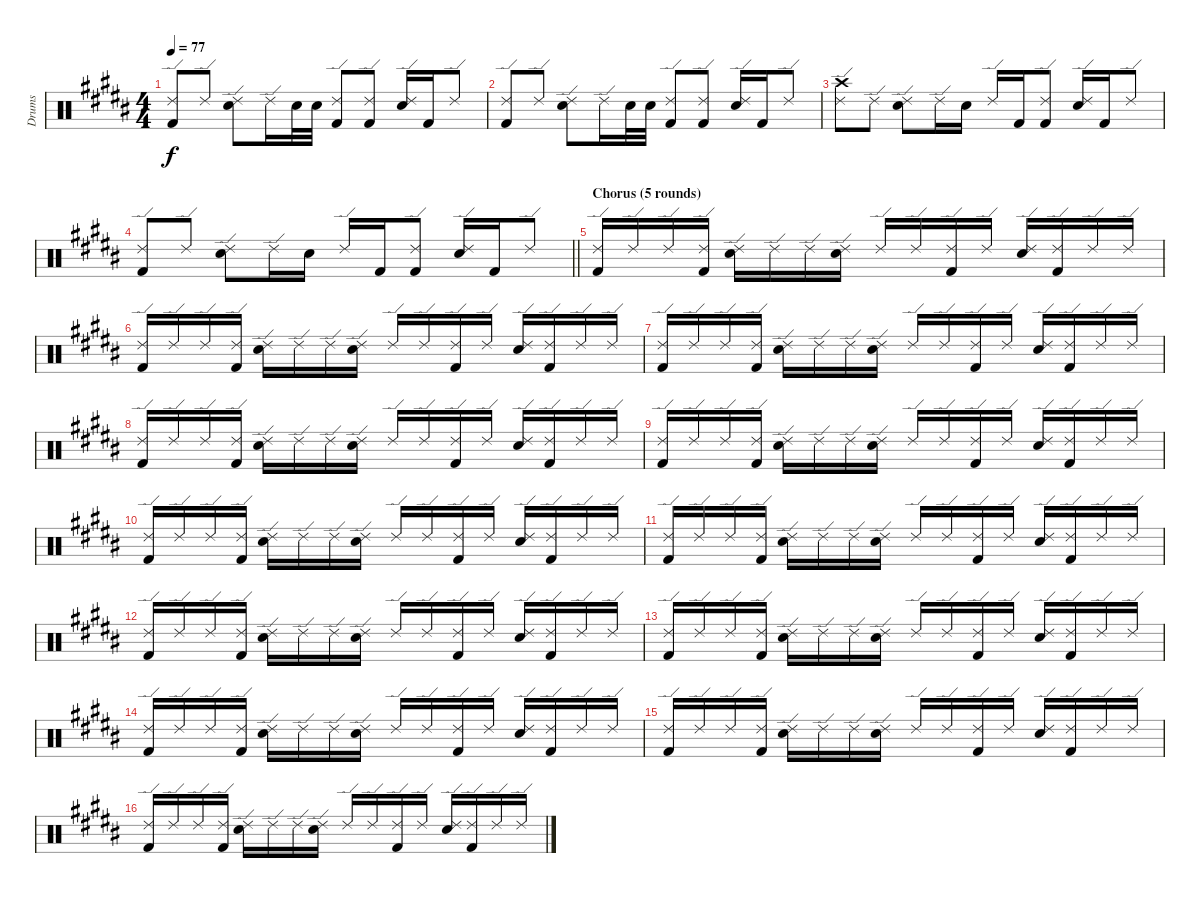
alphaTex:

\track ("Drums" "Drums") {instrument percussion}
\staff {score}
\articulation defaults
\ts (4 4)
\tempo 77
\clef neutral
\ks g#minor
("Kick (hit) 2" "Ride (edge) 2").8{dy f} "Ride (edge) 2".8 ("Ride (edge) 2" "Snare (hit) 2").8 "Ride (edge) 2".16 "Snare (hit) 2".32 "Snare (hit) 2".32 ("Kick (hit) 2" "Ride (edge) 2").8 ("Kick (hit) 2" "Ride (edge) 2").8 ("Ride (edge) 2" "Snare (hit) 2").16 "Kick (hit) 2".16 "Ride (edge) 2".8 |
("Kick (hit) 2" "Ride (edge) 2").8 "Ride (edge) 2".8 ("Ride (edge) 2" "Snare (hit) 2").8 "Ride (edge) 2".16 "Snare (hit) 2".32 "Snare (hit) 2".32 ("Kick (hit) 2" "Ride (edge) 2").8 ("Kick (hit) 2" "Ride (edge) 2").8 ("Ride (edge) 2" "Snare (hit) 2").16 "Kick (hit) 2".16 "Ride (edge) 2".8 |
("Ride (edge) 2" "Crash high (hit)").8 "Ride (edge) 2".8 ("Ride (edge) 2" "Snare (hit) 2").8 "Ride (edge) 2".16 "Snare (hit) 2".16 "Ride (edge) 2".16 "Kick (hit) 2".16 ("Kick (hit) 2" "Ride (edge) 2").8 ("Ride (edge) 2" "Snare (hit) 2").16 "Kick (hit) 2".16 "Ride (edge) 2".8 |
\barLineRight lightlight
("Kick (hit) 2" "Ride (edge) 2").8 "Ride (edge) 2".8 ("Ride (edge) 2" "Snare (hit) 2").8 "Ride (edge) 2".16 "Snare (hit) 2".16 "Ride (edge) 2".16 "Kick (hit) 2".16 ("Kick (hit) 2" "Ride (edge) 2").8 ("Ride (edge) 2" "Snare (hit) 2").16 "Kick (hit) 2".16 "Ride (edge) 2".8 |
\section ("" "Chorus (5 rounds)")
("Kick (hit) 2" "Ride (edge) 2").16 "Ride (edge) 2".16 "Ride (edge) 2".16 ("Kick (hit) 2" "Ride (edge) 2").16 ("Ride (edge) 2" "Snare (hit) 2").16 "Ride (edge) 2".16 "Ride (edge) 2".16 ("Ride (edge) 2" "Snare (hit) 2").16 "Ride (edge) 2".16 "Ride (edge) 2".16 ("Kick (hit) 2" "Ride (edge) 2").16 "Ride (edge) 2".16 ("Ride (edge) 2" "Snare (hit) 2").16 ("Kick (hit) 2" "Ride (edge) 2").16 "Ride (edge) 2".16 "Ride (edge) 2".16 |
("Kick (hit) 2" "Ride (edge) 2").16 "Ride (edge) 2".16 "Ride (edge) 2".16 ("Kick (hit) 2" "Ride (edge) 2").16 ("Ride (edge) 2" "Snare (hit) 2").16 "Ride (edge) 2".16 "Ride (edge) 2".16 ("Ride (edge) 2" "Snare (hit) 2").16 "Ride (edge) 2".16 "Ride (edge) 2".16 ("Kick (hit) 2" "Ride (edge) 2").16 "Ride (edge) 2".16 ("Ride (edge) 2" "Snare (hit) 2").16 ("Kick (hit) 2" "Ride (edge) 2").16 "Ride (edge) 2".16 "Ride (edge) 2".16 |
("Kick (hit) 2" "Ride (edge) 2").16 "Ride (edge) 2".16 "Ride (edge) 2".16 ("Kick (hit) 2" "Ride (edge) 2").16 ("Ride (edge) 2" "Snare (hit) 2").16 "Ride (edge) 2".16 "Ride (edge) 2".16 ("Ride (edge) 2" "Snare (hit) 2").16 "Ride (edge) 2".16 "Ride (edge) 2".16 ("Kick (hit) 2" "Ride (edge) 2").16 "Ride (edge) 2".16 ("Ride (edge) 2" "Snare (hit) 2").16 ("Kick (hit) 2" "Ride (edge) 2").16 "Ride (edge) 2".16 "Ride (edge) 2".16 |
("Kick (hit) 2" "Ride (edge) 2").16 "Ride (edge) 2".16 "Ride (edge) 2".16 ("Kick (hit) 2" "Ride (edge) 2").16 ("Ride (edge) 2" "Snare (hit) 2").16 "Ride (edge) 2".16 "Ride (edge) 2".16 ("Ride (edge) 2" "Snare (hit) 2").16 "Ride (edge) 2".16 "Ride (edge) 2".16 ("Kick (hit) 2" "Ride (edge) 2").16 "Ride (edge) 2".16 ("Ride (edge) 2" "Snare (hit) 2").16 ("Kick (hit) 2" "Ride (edge) 2").16 "Ride (edge) 2".16 "Ride (edge) 2".16 |
("Kick (hit) 2" "Ride (edge) 2").16 "Ride (edge) 2".16 "Ride (edge) 2".16 ("Kick (hit) 2" "Ride (edge) 2").16 ("Ride (edge) 2" "Snare (hit) 2").16 "Ride (edge) 2".16 "Ride (edge) 2".16 ("Ride (edge) 2" "Snare (hit) 2").16 "Ride (edge) 2".16 "Ride (edge) 2".16 ("Kick (hit) 2" "Ride (edge) 2").16 "Ride (edge) 2".16 ("Ride (edge) 2" "Snare (hit) 2").16 ("Kick (hit) 2" "Ride (edge) 2").16 "Ride (edge) 2".16 "Ride (edge) 2".16 |
("Kick (hit) 2" "Ride (edge) 2").16 "Ride (edge) 2".16 "Ride (edge) 2".16 ("Kick (hit) 2" "Ride (edge) 2").16 ("Ride (edge) 2" "Snare (hit) 2").16 "Ride (edge) 2".16 "Ride (edge) 2".16 ("Ride (edge) 2" "Snare (hit) 2").16 "Ride (edge) 2".16 "Ride (edge) 2".16 ("Kick (hit) 2" "Ride (edge) 2").16 "Ride (edge) 2".16 ("Ride (edge) 2" "Snare (hit) 2").16 ("Kick (hit) 2" "Ride (edge) 2").16 "Ride (edge) 2".16 "Ride (edge) 2".16 |
("Kick (hit) 2" "Ride (edge) 2").16 "Ride (edge) 2".16 "Ride (edge) 2".16 ("Kick (hit) 2" "Ride (edge) 2").16 ("Ride (edge) 2" "Snare (hit) 2").16 "Ride (edge) 2".16 "Ride (edge) 2".16 ("Ride (edge) 2" "Snare (hit) 2").16 "Ride (edge) 2".16 "Ride (edge) 2".16 ("Kick (hit) 2" "Ride (edge) 2").16 "Ride (edge) 2".16 ("Ride (edge) 2" "Snare (hit) 2").16 ("Kick (hit) 2" "Ride (edge) 2").16 "Ride (edge) 2".16 "Ride (edge) 2".16 |
("Kick (hit) 2" "Ride (edge) 2").16 "Ride (edge) 2".16 "Ride (edge) 2".16 ("Kick (hit) 2" "Ride (edge) 2").16 ("Ride (edge) 2" "Snare (hit) 2").16 "Ride (edge) 2".16 "Ride (edge) 2".16 ("Ride (edge) 2" "Snare (hit) 2").16 "Ride (edge) 2".16 "Ride (edge) 2".16 ("Kick (hit) 2" "Ride (edge) 2").16 "Ride (edge) 2".16 ("Ride (edge) 2" "Snare (hit) 2").16 ("Kick (hit) 2" "Ride (edge) 2").16 "Ride (edge) 2".16 "Ride (edge) 2".16 |
("Kick (hit) 2" "Ride (edge) 2").16 "Ride (edge) 2".16 "Ride (edge) 2".16 ("Kick (hit) 2" "Ride (edge) 2").16 ("Ride (edge) 2" "Snare (hit) 2").16 "Ride (edge) 2".16 "Ride (edge) 2".16 ("Ride (edge) 2" "Snare (hit) 2").16 "Ride (edge) 2".16 "Ride (edge) 2".16 ("Kick (hit) 2" "Ride (edge) 2").16 "Ride (edge) 2".16 ("Ride (edge) 2" "Snare (hit) 2").16 ("Kick (hit) 2" "Ride (edge) 2").16 "Ride (edge) 2".16 "Ride (edge) 2".16 |
("Kick (hit) 2" "Ride (edge) 2").16 "Ride (edge) 2".16 "Ride (edge) 2".16 ("Kick (hit) 2" "Ride (edge) 2").16 ("Ride (edge) 2" "Snare (hit) 2").16 "Ride (edge) 2".16 "Ride (edge) 2".16 ("Ride (edge) 2" "Snare (hit) 2").16 "Ride (edge) 2".16 "Ride (edge) 2".16 ("Kick (hit) 2" "Ride (edge) 2").16 "Ride (edge) 2".16 ("Ride (edge) 2" "Snare (hit) 2").16 ("Kick (hit) 2" "Ride (edge) 2").16 "Ride (edge) 2".16 "Ride (edge) 2".16 |
("Kick (hit) 2" "Ride (edge) 2").16 "Ride (edge) 2".16 "Ride (edge) 2".16 ("Kick (hit) 2" "Ride (edge) 2").16 ("Ride (edge) 2" "Snare (hit) 2").16 "Ride (edge) 2".16 "Ride (edge) 2".16 ("Ride (edge) 2" "Snare (hit) 2").16 "Ride (edge) 2".16 "Ride (edge) 2".16 ("Kick (hit) 2" "Ride (edge) 2").16 "Ride (edge) 2".16 ("Ride (edge) 2" "Snare (hit) 2").16 ("Kick (hit) 2" "Ride (edge) 2").16 "Ride (edge) 2".16 "Ride (edge) 2".16 |
("Kick (hit) 2" "Ride (edge) 2").16 "Ride (edge) 2".16 "Ride (edge) 2".16 ("Kick (hit) 2" "Ride (edge) 2").16 ("Ride (edge) 2" "Snare (hit) 2").16 "Ride (edge) 2".16 "Ride (edge) 2".16 ("Ride (edge) 2" "Snare (hit) 2").16 "Ride (edge) 2".16 "Ride (edge) 2".16 ("Kick (hit) 2" "Ride (edge) 2").16 "Ride (edge) 2".16 ("Ride (edge) 2" "Snare (hit) 2").16 ("Kick (hit) 2" "Ride (edge) 2").16 "Ride (edge) 2".16 "Ride (edge) 2".16
